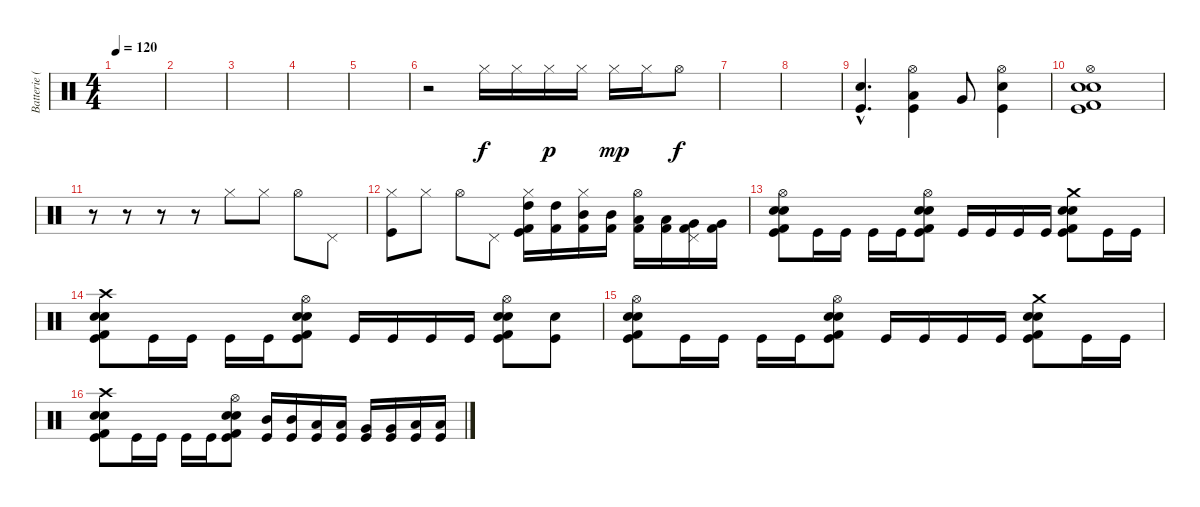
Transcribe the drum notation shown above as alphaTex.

\track ("Batterie (Ced)" "Batterie (") {instrument percussion}
\staff {score}
\articulation defaults
\ts (4 4)
\tempo 120
\clef neutral
\ks c
|
|
|
|
|
r.2 "Hi-Hat (closed)".16 "Hi-Hat (closed)".16 "Hi-Hat (closed)".16{dy p} "Hi-Hat (closed)".16 "Hi-Hat (closed)".16{dy mp} "Hi-Hat (closed)".16 "Hi-Hat (open)".8{dy f} |
|
|
("Electric Snare (hit)"{hac} "Kick (hit)"{hac}).4{d} ("Hi-Hat (open)" "Low Tom (hit)" "Kick (hit)").4 "Very Low Tom (hit)".8 ("Hi-Hat (open)" "Snare (hit) 2" "Kick (hit)").4 |
("Hi-Hat (open)" "Snare (hit) 2" "Electric Snare (hit)" "Kick (hit)" "Kick (hit) 2").1 |
r.8 r.8 r.8 r.8 "Hi-Hat (closed)".8 "Hi-Hat (closed)".8 "Hi-Hat (open)".8 "Pedal Hi-Hat (hit)".8 |
("Hi-Hat (closed)" "Kick (hit)").8 "Hi-Hat (closed)".8 "Hi-Hat (open)".8 "Pedal Hi-Hat (hit)".8 ("Hi-Hat (closed)" "High Tom (hit)" "Kick (hit) 2" "Kick (hit)").16 ("High Tom (hit)" "Kick (hit) 2").16 ("Hi-Hat (closed)" "Mid Tom (hit)" "Kick (hit) 2").16 ("Mid Tom (hit)" "Kick (hit) 2").16 ("Hi-Hat (open)" "Low Tom (hit)" "Kick (hit) 2").16 ("Low Tom (hit)" "Kick (hit) 2").16 ("Pedal Hi-Hat (hit)" "Very Low Tom (hit)" "Kick (hit) 2").16 ("Very Low Tom (hit)" "Kick (hit) 2").16 |
("Hi-Hat (open)" "Snare (hit) 2" "Electric Snare (hit)" "Kick (hit)" "Kick (hit) 2").8 "Kick (hit)".16 "Kick (hit)".16 "Kick (hit)".16 "Kick (hit)".16 ("Hi-Hat (open)" "Snare (hit) 2" "Electric Snare (hit)" "Kick (hit)" "Kick (hit) 2").8 "Kick (hit)".16 "Kick (hit)".16 "Kick (hit)".16 "Kick (hit)".16 ("Crash medium (hit)" "Snare (hit) 2" "Electric Snare (hit)" "Kick (hit)" "Kick (hit) 2").8 "Kick (hit)".16 "Kick (hit)".16 |
("Crash high (hit)" "Snare (hit) 2" "Electric Snare (hit)" "Kick (hit)" "Kick (hit) 2").8 "Kick (hit)".16 "Kick (hit)".16 "Kick (hit)".16 "Kick (hit)".16 ("Hi-Hat (open)" "Snare (hit) 2" "Electric Snare (hit)" "Kick (hit)" "Kick (hit) 2").8 "Kick (hit)".16 "Kick (hit)".16 "Kick (hit)".16 "Kick (hit)".16 ("Hi-Hat (open)" "Snare (hit) 2" "Electric Snare (hit)" "Kick (hit)" "Kick (hit) 2").8 ("Snare (hit) 2" "Kick (hit)").8 |
("Hi-Hat (open)" "Snare (hit) 2" "Electric Snare (hit)" "Kick (hit)" "Kick (hit) 2").8 "Kick (hit)".16 "Kick (hit)".16 "Kick (hit)".16 "Kick (hit)".16 ("Hi-Hat (open)" "Snare (hit) 2" "Electric Snare (hit)" "Kick (hit)" "Kick (hit) 2").8 "Kick (hit)".16 "Kick (hit)".16 "Kick (hit)".16 "Kick (hit)".16 ("Crash medium (hit)" "Snare (hit) 2" "Electric Snare (hit)" "Kick (hit)" "Kick (hit) 2").8 "Kick (hit)".16 "Kick (hit)".16 |
("Crash high (hit)" "Snare (hit) 2" "Electric Snare (hit)" "Kick (hit)" "Kick (hit) 2").8 "Kick (hit)".16 "Kick (hit)".16 "Kick (hit)".16 "Kick (hit)".16 ("Hi-Hat (open)" "Snare (hit) 2" "Electric Snare (hit)" "Kick (hit)" "Kick (hit) 2").8 ("Mid Tom (hit)" "Kick (hit)").16 ("Mid Tom (hit)" "Kick (hit)").16 ("Low Tom (hit)" "Kick (hit)").16 ("Low Tom (hit)" "Kick (hit)").16 ("Very Low Tom (hit)" "Kick (hit)").16 ("Very Low Tom (hit)" "Kick (hit)").16 ("Low Floor Tom (hit)" "Kick (hit)").16 ("Low Floor Tom (hit)" "Kick (hit)").16
